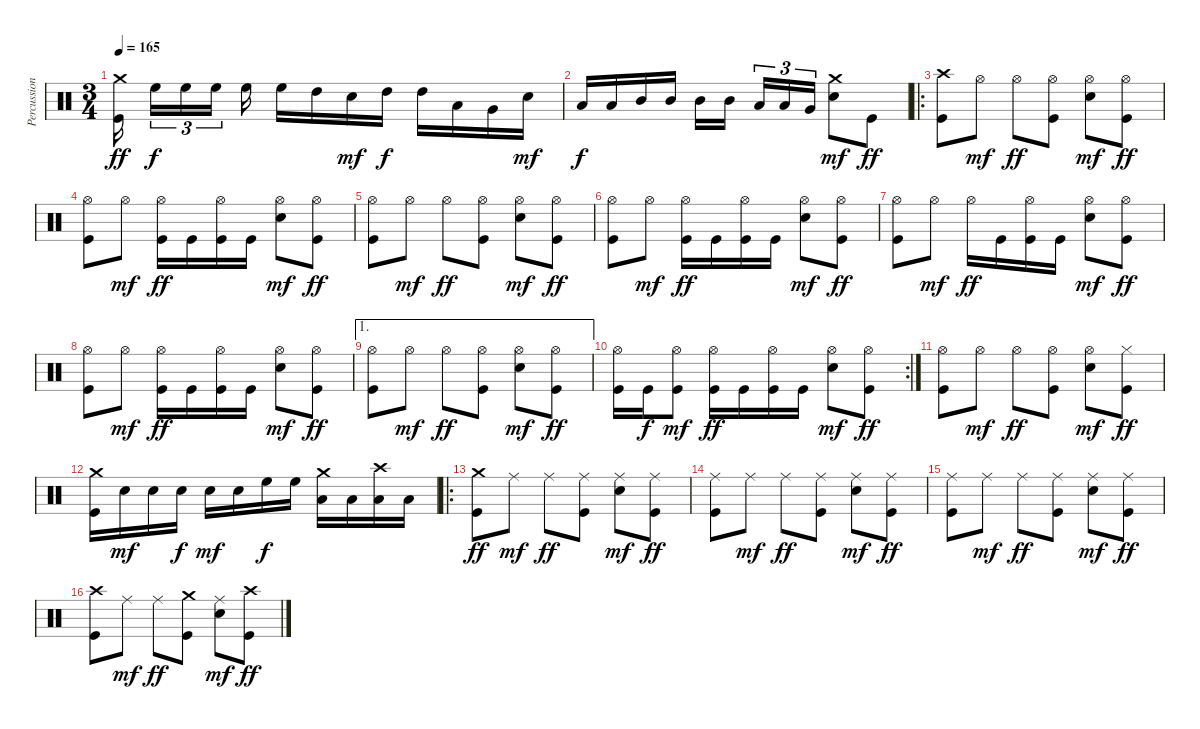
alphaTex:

\track ("Percussion" "Percussion") {instrument percussion}
\staff {score}
\articulation defaults
\ts (3 4)
\tempo 165
\clef neutral
\ks c
("Crash medium (hit)" "Kick (hit)").16{dy ff beam splitsecondary} "High Floor Tom (hit)".16{tu (3 2) dy f} "High Floor Tom (hit)".16{tu (3 2)} "High Floor Tom (hit)".16{tu (3 2) beam splitsecondary} "High Floor Tom (hit)".16 "High Floor Tom (hit)".16 "High Tom (hit)".16 "Electric Snare (hit)".16{dy mf} "High Tom (hit)".16{dy f} "High Tom (hit)".16 "Low Tom (hit)".16 "Very Low Tom (hit)".16 "Electric Snare (hit)".16{dy mf} |
"Low Tom (hit)".16{dy f} "Low Tom (hit)".16 "Mid Tom (hit)".16 "Mid Tom (hit)".16 "Mid Tom (hit)".16 "Mid Tom (hit)".16{beam splitsecondary} "Low Tom (hit)".16{tu (3 2)} "Low Tom (hit)".16{tu (3 2)} "Very Low Tom (hit)".16{tu (3 2)} ("Crash medium (hit)" "Electric Snare (hit)").8{dy mf} "Kick (hit)".8{dy ff} |
\ro
("Crash high (hit)" "Kick (hit)").8 "Hi-Hat (open)".8{dy mf} "Hi-Hat (open)".8{dy ff} ("Hi-Hat (open)" "Kick (hit)").8 ("Hi-Hat (open)" "Electric Snare (hit)").8{dy mf} ("Hi-Hat (open)" "Kick (hit)").8{dy ff} |
("Hi-Hat (open)" "Kick (hit)").8 "Hi-Hat (open)".8{dy mf} ("Hi-Hat (open)" "Kick (hit)").16{dy ff} "Kick (hit)".16 ("Hi-Hat (open)" "Kick (hit)").16 "Kick (hit)".16 ("Hi-Hat (open)" "Electric Snare (hit)").8{dy mf} ("Hi-Hat (open)" "Kick (hit)").8{dy ff} |
("Hi-Hat (open)" "Kick (hit)").8 "Hi-Hat (open)".8{dy mf} "Hi-Hat (open)".8{dy ff} ("Hi-Hat (open)" "Kick (hit)").8 ("Hi-Hat (open)" "Electric Snare (hit)").8{dy mf} ("Hi-Hat (open)" "Kick (hit)").8{dy ff} |
("Hi-Hat (open)" "Kick (hit)").8 "Hi-Hat (open)".8{dy mf} ("Hi-Hat (open)" "Kick (hit)").16{dy ff} "Kick (hit)".16 ("Hi-Hat (open)" "Kick (hit)").16 "Kick (hit)".16 ("Hi-Hat (open)" "Electric Snare (hit)").8{dy mf} ("Hi-Hat (open)" "Kick (hit)").8{dy ff} |
("Hi-Hat (open)" "Kick (hit)").8 "Hi-Hat (open)".8{dy mf} "Hi-Hat (open)".16{dy ff} "Kick (hit)".16 ("Hi-Hat (open)" "Kick (hit)").16 "Kick (hit)".16 ("Hi-Hat (open)" "Electric Snare (hit)").8{dy mf} ("Hi-Hat (open)" "Kick (hit)").8{dy ff} |
("Hi-Hat (open)" "Kick (hit)").8 "Hi-Hat (open)".8{dy mf} ("Hi-Hat (open)" "Kick (hit)").16{dy ff} "Kick (hit)".16 ("Hi-Hat (open)" "Kick (hit)").16 "Kick (hit)".16 ("Hi-Hat (open)" "Electric Snare (hit)").8{dy mf} ("Hi-Hat (open)" "Kick (hit)").8{dy ff} |
\ae 1
("Hi-Hat (open)" "Kick (hit)").8 "Hi-Hat (open)".8{dy mf} "Hi-Hat (open)".8{dy ff} ("Hi-Hat (open)" "Kick (hit)").8 ("Hi-Hat (open)" "Electric Snare (hit)").8{dy mf} ("Hi-Hat (open)" "Kick (hit)").8{dy ff} |
\rc 2
("Hi-Hat (open)" "Kick (hit)").16 "Kick (hit)".16{dy f} ("Hi-Hat (open)" "Kick (hit)").8{dy mf} ("Hi-Hat (open)" "Kick (hit)").16{dy ff} "Kick (hit)".16 ("Hi-Hat (open)" "Kick (hit)").16 "Kick (hit)".16 ("Hi-Hat (open)" "Electric Snare (hit)").8{dy mf} ("Hi-Hat (open)" "Kick (hit)").8{dy ff} |
("Hi-Hat (open)" "Kick (hit)").8 "Hi-Hat (open)".8{dy mf} "Hi-Hat (open)".8{dy ff} ("Hi-Hat (open)" "Kick (hit)").8 ("Hi-Hat (open)" "Electric Snare (hit)").8{dy mf} ("Hi-Hat (closed)" "Kick (hit)").8{dy ff} |
("Crash medium (hit)" "Kick (hit)").16 "Electric Snare (hit)".16{dy mf} "Electric Snare (hit)".16 "Electric Snare (hit)".16{dy f} "Electric Snare (hit)".16{dy mf} "Electric Snare (hit)".16 "High Floor Tom (hit)".16{dy f} "High Floor Tom (hit)".16 ("Crash medium (hit)" "Low Tom (hit)").16 "Low Tom (hit)".16 ("Crash high (hit)" "Low Floor Tom (hit)").16 "Low Floor Tom (hit)".16 |
\ro
("Crash medium (hit)" "Kick (hit)").8{dy ff} "Ride (middle)".8{dy mf} "Ride (middle)".8{dy ff} ("Ride (middle)" "Kick (hit)").8 ("Ride (middle)" "Electric Snare (hit)").8{dy mf} ("Ride (middle)" "Kick (hit)").8{dy ff} |
("Ride (middle)" "Kick (hit)").8 "Ride (middle)".8{dy mf} "Ride (middle)".8{dy ff} ("Ride (middle)" "Kick (hit)").8 ("Ride (middle)" "Electric Snare (hit)").8{dy mf} ("Ride (middle)" "Kick (hit)").8{dy ff} |
("Ride (middle)" "Kick (hit)").8 "Ride (middle)".8{dy mf} "Ride (middle)".8{dy ff} ("Ride (middle)" "Kick (hit)").8 ("Ride (middle)" "Electric Snare (hit)").8{dy mf} ("Ride (middle)" "Kick (hit)").8{dy ff} |
("Crash high (hit)" "Kick (hit)").8 "Ride (middle)".8{dy mf} "Ride (middle)".8{dy ff} ("Crash medium (hit)" "Kick (hit)").8 ("Ride (middle)" "Electric Snare (hit)").8{dy mf} ("Crash high (hit)" "Kick (hit)").8{dy ff}
